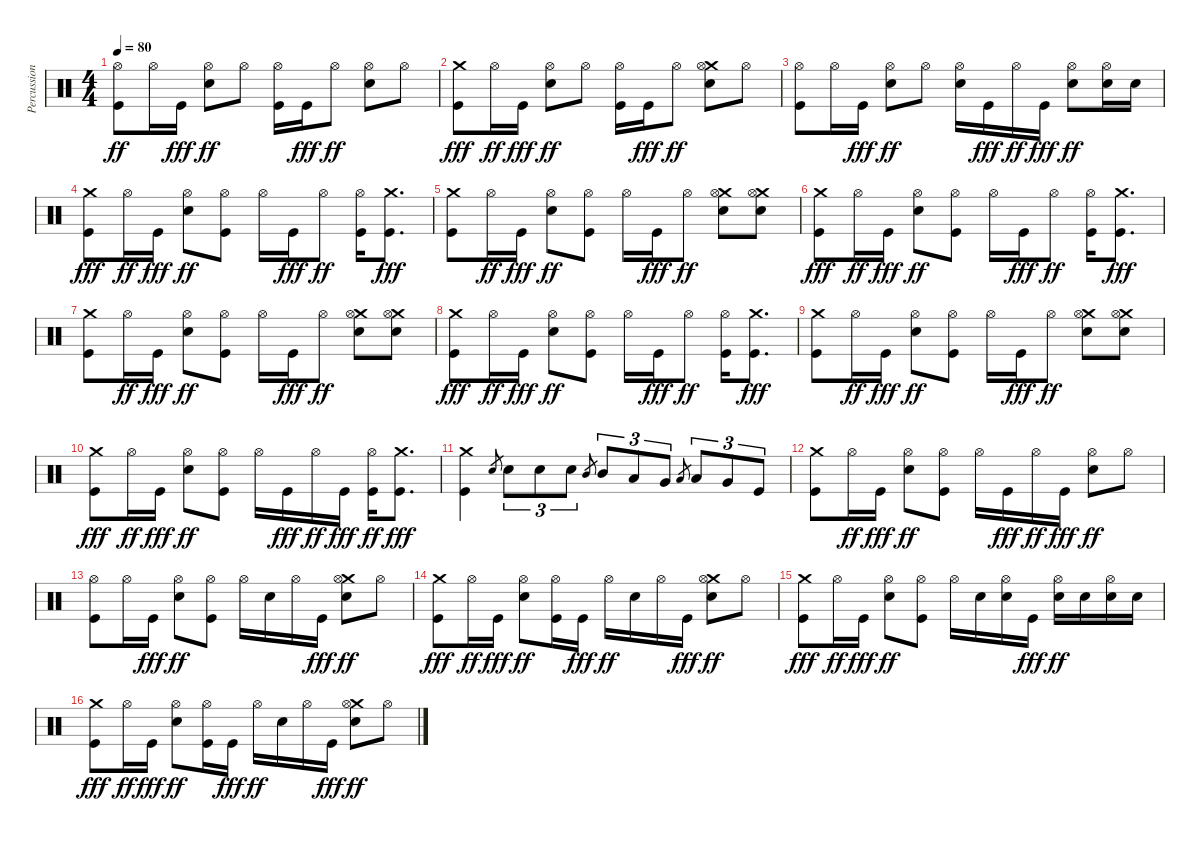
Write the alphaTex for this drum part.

\track ("Percussion" "Percussion") {instrument percussion}
\staff {score}
\articulation defaults
\ts (4 4)
\tempo 80
\clef neutral
\ks c
("Kick (hit)" "Hi-Hat (open)").8{dy ff} "Hi-Hat (open)".16 "Kick (hit)".16{dy fff} ("Snare (hit) 2" "Hi-Hat (open)").8{dy ff} "Hi-Hat (open)".8 ("Kick (hit)" "Hi-Hat (open)").16 "Kick (hit)".16{dy fff} "Hi-Hat (open)".8{dy ff} ("Snare (hit) 2" "Hi-Hat (open)").8 "Hi-Hat (open)".8 |
("Kick (hit)" "Crash medium (hit)").8{dy fff} "Hi-Hat (open)".16{dy ff} "Kick (hit)".16{dy fff} ("Snare (hit) 2" "Hi-Hat (open)").8{dy ff} "Hi-Hat (open)".8 ("Kick (hit)" "Hi-Hat (open)").16 "Kick (hit)".16{dy fff} "Hi-Hat (open)".8{dy ff} ("Snare (hit) 2" "Crash medium (hit)" "Hi-Hat (open)").8 "Hi-Hat (open)".8 |
("Kick (hit)" "Hi-Hat (open)").8 "Hi-Hat (open)".16 "Kick (hit)".16{dy fff} ("Snare (hit) 2" "Hi-Hat (open)").8{dy ff} "Hi-Hat (open)".8 ("Snare (hit) 2" "Hi-Hat (open)").16 "Kick (hit)".16{dy fff} "Hi-Hat (open)".16{dy ff} "Kick (hit)".16{dy fff} ("Snare (hit) 2" "Hi-Hat (open)").8{dy ff} ("Snare (hit) 2" "Hi-Hat (open)").16 "Snare (hit) 2".16 |
("Kick (hit)" "Crash medium (hit)").8{dy fff} "Hi-Hat (open)".16{dy ff} "Kick (hit)".16{dy fff} ("Snare (hit) 2" "Hi-Hat (open)").8{dy ff} ("Kick (hit)" "Hi-Hat (open)").8 "Hi-Hat (open)".16 "Kick (hit)".16{dy fff} "Hi-Hat (open)".8{dy ff} ("Kick (hit)" "Hi-Hat (open)").16 ("Kick (hit)" "Crash medium (hit)").8{d dy fff} |
("Kick (hit)" "Crash medium (hit)").8 "Hi-Hat (open)".16{dy ff} "Kick (hit)".16{dy fff} ("Snare (hit) 2" "Hi-Hat (open)").8{dy ff} ("Kick (hit)" "Hi-Hat (open)").8 "Hi-Hat (open)".16 "Kick (hit)".16{dy fff} "Hi-Hat (open)".8{dy ff} ("Snare (hit) 2" "Crash medium (hit)" "Hi-Hat (open)").8 ("Snare (hit) 2" "Crash medium (hit)" "Hi-Hat (open)").8 |
("Kick (hit)" "Crash medium (hit)").8{dy fff} "Hi-Hat (open)".16{dy ff} "Kick (hit)".16{dy fff} ("Snare (hit) 2" "Hi-Hat (open)").8{dy ff} ("Kick (hit)" "Hi-Hat (open)").8 "Hi-Hat (open)".16 "Kick (hit)".16{dy fff} "Hi-Hat (open)".8{dy ff} ("Kick (hit)" "Hi-Hat (open)").16 ("Kick (hit)" "Crash medium (hit)").8{d dy fff} |
("Kick (hit)" "Crash medium (hit)").8 "Hi-Hat (open)".16{dy ff} "Kick (hit)".16{dy fff} ("Snare (hit) 2" "Hi-Hat (open)").8{dy ff} ("Kick (hit)" "Hi-Hat (open)").8 "Hi-Hat (open)".16 "Kick (hit)".16{dy fff} "Hi-Hat (open)".8{dy ff} ("Snare (hit) 2" "Crash medium (hit)" "Hi-Hat (open)").8 ("Snare (hit) 2" "Crash medium (hit)" "Hi-Hat (open)").8 |
("Kick (hit)" "Crash medium (hit)").8{dy fff} "Hi-Hat (open)".16{dy ff} "Kick (hit)".16{dy fff} ("Snare (hit) 2" "Hi-Hat (open)").8{dy ff} ("Kick (hit)" "Hi-Hat (open)").8 "Hi-Hat (open)".16 "Kick (hit)".16{dy fff} "Hi-Hat (open)".8{dy ff} ("Kick (hit)" "Hi-Hat (open)").16 ("Kick (hit)" "Crash medium (hit)").8{d dy fff} |
("Kick (hit)" "Crash medium (hit)").8 "Hi-Hat (open)".16{dy ff} "Kick (hit)".16{dy fff} ("Snare (hit) 2" "Hi-Hat (open)").8{dy ff} ("Kick (hit)" "Hi-Hat (open)").8 "Hi-Hat (open)".16 "Kick (hit)".16{dy fff} "Hi-Hat (open)".8{dy ff} ("Snare (hit) 2" "Crash medium (hit)" "Hi-Hat (open)").8 ("Snare (hit) 2" "Crash medium (hit)" "Hi-Hat (open)").8 |
("Kick (hit)" "Crash medium (hit)").8{dy fff} "Hi-Hat (open)".16{dy ff} "Kick (hit)".16{dy fff} ("Snare (hit) 2" "Hi-Hat (open)").8{dy ff} ("Kick (hit)" "Hi-Hat (open)").8 "Hi-Hat (open)".16 "Kick (hit)".16{dy fff} "Hi-Hat (open)".16{dy ff} "Kick (hit)".16{dy fff} ("Kick (hit)" "Hi-Hat (open)").16{dy ff} ("Kick (hit)" "Crash medium (hit)").8{d dy fff} |
("Kick (hit)" "Crash medium (hit)").4 "Snare (hit) 2".8{gr} "Snare (hit) 2".8{tu (3 2)} "Snare (hit) 2".8{tu (3 2)} "Snare (hit) 2".8{tu (3 2)} "Mid Tom (hit)".8{gr} "Mid Tom (hit)".8{tu (3 2)} "Low Tom (hit)".8{tu (3 2)} "Very Low Tom (hit)".8{tu (3 2)} "Low Tom (hit)".8{gr} "Low Tom (hit)".8{tu (3 2)} "Very Low Tom (hit)".8{tu (3 2)} "Kick (hit)".8{tu (3 2)} |
("Kick (hit)" "Crash medium (hit)").8 "Hi-Hat (open)".16{dy ff} "Kick (hit)".16{dy fff} ("Snare (hit) 2" "Hi-Hat (open)").8{dy ff} ("Kick (hit)" "Hi-Hat (open)").8 "Hi-Hat (open)".16 "Kick (hit)".16{dy fff} "Hi-Hat (open)".16{dy ff} "Kick (hit)".16{dy fff} ("Snare (hit) 2" "Hi-Hat (open)").8{dy ff} "Hi-Hat (open)".8 |
("Kick (hit)" "Hi-Hat (open)").8 "Hi-Hat (open)".16 "Kick (hit)".16{dy fff} ("Snare (hit) 2" "Hi-Hat (open)").8{dy ff} ("Kick (hit)" "Hi-Hat (open)").8 "Hi-Hat (open)".16 "Snare (hit) 2".16 "Hi-Hat (open)".16 "Kick (hit)".16{dy fff} ("Snare (hit) 2" "Crash medium (hit)" "Hi-Hat (open)").8{dy ff} "Hi-Hat (open)".8 |
("Kick (hit)" "Crash medium (hit)").8{dy fff} "Hi-Hat (open)".16{dy ff} "Kick (hit)".16{dy fff} ("Snare (hit) 2" "Hi-Hat (open)").8{dy ff} ("Kick (hit)" "Hi-Hat (open)").16 "Kick (hit)".16{dy fff} "Hi-Hat (open)".16{dy ff} "Snare (hit) 2".16 "Hi-Hat (open)".16 "Kick (hit)".16{dy fff} ("Snare (hit) 2" "Crash medium (hit)" "Hi-Hat (open)").8{dy ff} "Hi-Hat (open)".8 |
("Kick (hit)" "Crash medium (hit)").8{dy fff} "Hi-Hat (open)".16{dy ff} "Kick (hit)".16{dy fff} ("Snare (hit) 2" "Hi-Hat (open)").8{dy ff} ("Kick (hit)" "Hi-Hat (open)").8 "Hi-Hat (open)".16 "Snare (hit) 2".16 ("Snare (hit) 2" "Hi-Hat (open)").16 "Kick (hit)".16{dy fff} ("Snare (hit) 2" "Hi-Hat (open)").16{dy ff} "Snare (hit) 2".16 ("Snare (hit) 2" "Hi-Hat (open)").16 "Snare (hit) 2".16 |
("Kick (hit)" "Crash medium (hit)").8{dy fff} "Hi-Hat (open)".16{dy ff} "Kick (hit)".16{dy fff} ("Snare (hit) 2" "Hi-Hat (open)").8{dy ff} ("Kick (hit)" "Hi-Hat (open)").16 "Kick (hit)".16{dy fff} "Hi-Hat (open)".16{dy ff} "Snare (hit) 2".16 "Hi-Hat (open)".16 "Kick (hit)".16{dy fff} ("Snare (hit) 2" "Crash medium (hit)" "Hi-Hat (open)").8{dy ff} "Hi-Hat (open)".8
